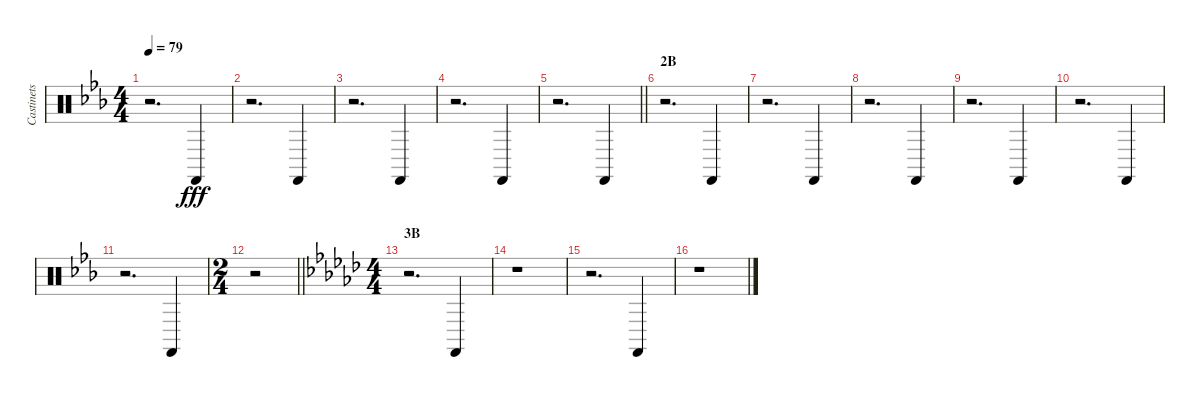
\track ("Castinets" "Castinets") {instrument percussion}
\staff {score}
\articulation defaults
\ts (4 4)
\tempo 79
\clef neutral
\ks eb
r.2{d dy fff} "Castanets (hit)".4 |
r.2{d} "Castanets (hit)".4 |
r.2{d} "Castanets (hit)".4 |
r.2{d} "Castanets (hit)".4 |
\barLineRight lightlight
r.2{d} "Castanets (hit)".4 |
\section ("" "2B")
r.2{d} "Castanets (hit)".4 |
r.2{d} "Castanets (hit)".4 |
r.2{d} "Castanets (hit)".4 |
r.2{d} "Castanets (hit)".4 |
r.2{d} "Castanets (hit)".4 |
r.2{d} "Castanets (hit)".4 |
\ts (2 4)
\barLineRight lightlight
r.2 |
\ts (4 4)
\section ("" "3B")
\ks gb
r.2{d} "Castanets (hit)".4 |
r.1 |
r.2{d} "Castanets (hit)".4 |
r.1
